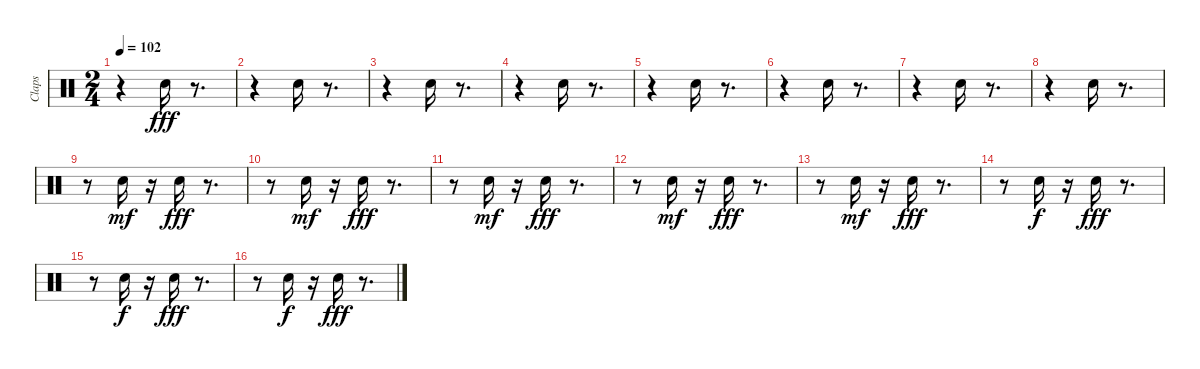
\track ("Claps" "Claps") {instrument percussion}
\staff {score}
\articulation defaults
\ts (2 4)
\tempo 102
\clef neutral
\ks c
r.4{dy fff} "Hand Clap (hit)".16 r.8{d} |
r.4 "Hand Clap (hit)".16 r.8{d} |
r.4 "Hand Clap (hit)".16 r.8{d} |
r.4 "Hand Clap (hit)".16 r.8{d} |
r.4 "Hand Clap (hit)".16 r.8{d} |
r.4 "Hand Clap (hit)".16 r.8{d} |
r.4 "Hand Clap (hit)".16 r.8{d} |
r.4 "Hand Clap (hit)".16 r.8{d} |
r.8 "Hand Clap (hit)".16{dy mf} r.16 "Hand Clap (hit)".16{dy fff} r.8{d} |
r.8 "Hand Clap (hit)".16{dy mf} r.16 "Hand Clap (hit)".16{dy fff} r.8{d} |
r.8 "Hand Clap (hit)".16{dy mf} r.16 "Hand Clap (hit)".16{dy fff} r.8{d} |
r.8 "Hand Clap (hit)".16{dy mf} r.16 "Hand Clap (hit)".16{dy fff} r.8{d} |
r.8 "Hand Clap (hit)".16{dy mf} r.16 "Hand Clap (hit)".16{dy fff} r.8{d} |
r.8 "Hand Clap (hit)".16{dy f} r.16 "Hand Clap (hit)".16{dy fff} r.8{d} |
r.8 "Hand Clap (hit)".16{dy f} r.16 "Hand Clap (hit)".16{dy fff} r.8{d} |
r.8 "Hand Clap (hit)".16{dy f} r.16 "Hand Clap (hit)".16{dy fff} r.8{d}
